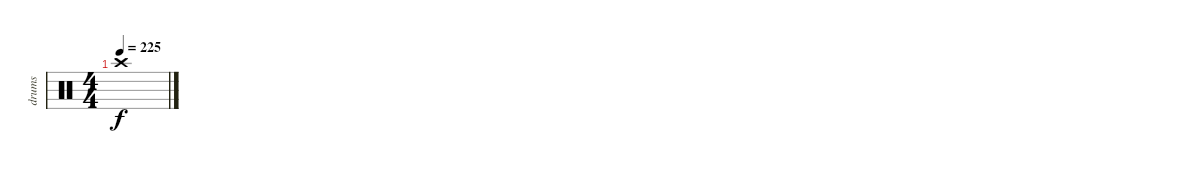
\track ("drums" "drums") {instrument percussion}
\staff {score}
\articulation defaults
\ts (4 4)
\tempo 225
\clef neutral
\ks c "Crash high (hit)".1{dy f}
